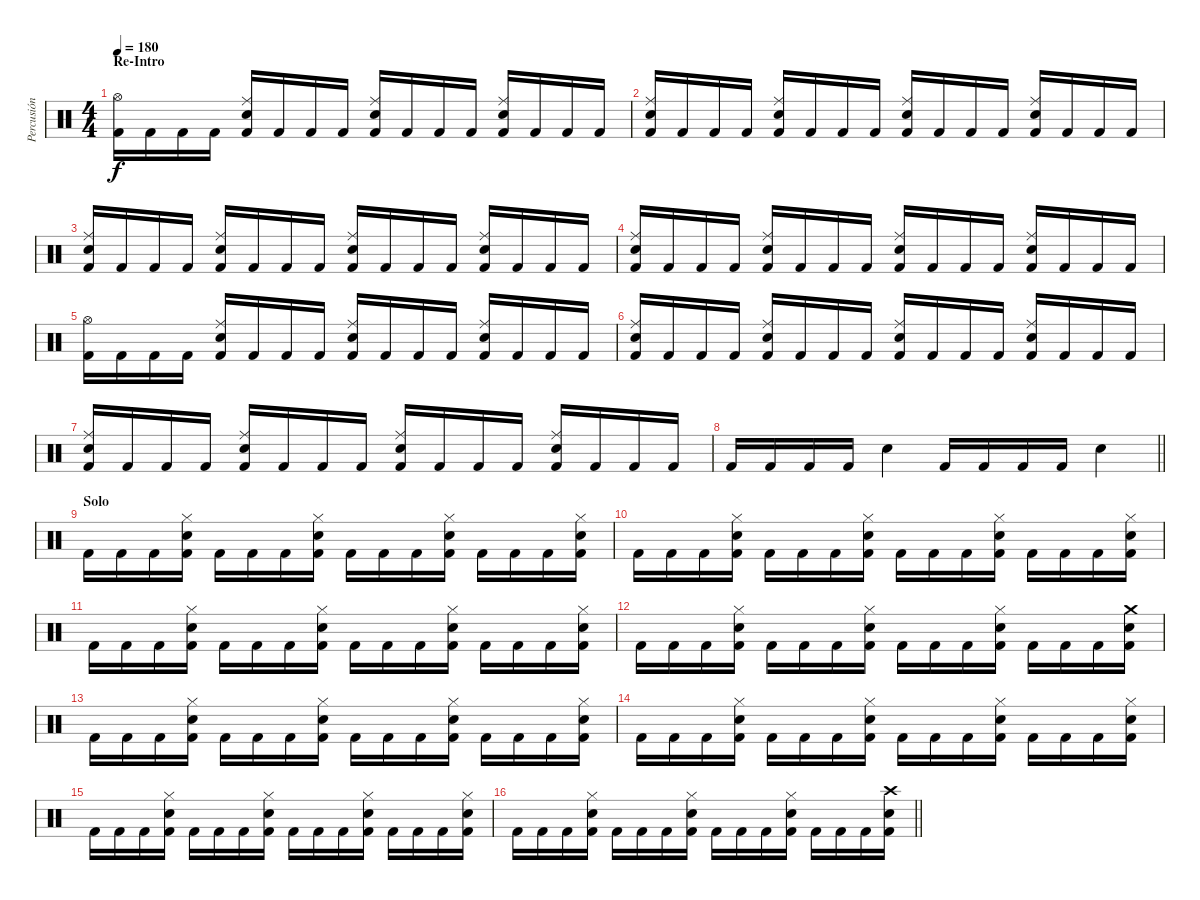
\track ("Percusión" "Percusión") {instrument percussion}
\staff {score}
\articulation defaults
\ts (4 4)
\section ("" "Re-Intro")
\tempo 180
\clef neutral
\ks c
("Hi-Hat (open)" "Kick (hit) 2").16{dy f} "Kick (hit) 2".16 "Kick (hit) 2".16 "Kick (hit) 2".16 ("Ride (middle)" "Snare (hit) 2" "Kick (hit) 2").16 "Kick (hit) 2".16 "Kick (hit) 2".16 "Kick (hit) 2".16 ("Ride (middle)" "Snare (hit) 2" "Kick (hit) 2").16 "Kick (hit) 2".16 "Kick (hit) 2".16 "Kick (hit) 2".16 ("Ride (middle)" "Snare (hit) 2" "Kick (hit) 2").16 "Kick (hit) 2".16 "Kick (hit) 2".16 "Kick (hit) 2".16 |
("Ride (middle)" "Snare (hit) 2" "Kick (hit) 2").16 "Kick (hit) 2".16 "Kick (hit) 2".16 "Kick (hit) 2".16 ("Ride (middle)" "Snare (hit) 2" "Kick (hit) 2").16 "Kick (hit) 2".16 "Kick (hit) 2".16 "Kick (hit) 2".16 ("Ride (middle)" "Snare (hit) 2" "Kick (hit) 2").16 "Kick (hit) 2".16 "Kick (hit) 2".16 "Kick (hit) 2".16 ("Ride (middle)" "Snare (hit) 2" "Kick (hit) 2").16 "Kick (hit) 2".16 "Kick (hit) 2".16 "Kick (hit) 2".16 |
("Ride (middle)" "Snare (hit) 2" "Kick (hit) 2").16 "Kick (hit) 2".16 "Kick (hit) 2".16 "Kick (hit) 2".16 ("Ride (middle)" "Snare (hit) 2" "Kick (hit) 2").16 "Kick (hit) 2".16 "Kick (hit) 2".16 "Kick (hit) 2".16 ("Ride (middle)" "Snare (hit) 2" "Kick (hit) 2").16 "Kick (hit) 2".16 "Kick (hit) 2".16 "Kick (hit) 2".16 ("Ride (middle)" "Snare (hit) 2" "Kick (hit) 2").16 "Kick (hit) 2".16 "Kick (hit) 2".16 "Kick (hit) 2".16 |
("Ride (middle)" "Snare (hit) 2" "Kick (hit) 2").16 "Kick (hit) 2".16 "Kick (hit) 2".16 "Kick (hit) 2".16 ("Ride (middle)" "Snare (hit) 2" "Kick (hit) 2").16 "Kick (hit) 2".16 "Kick (hit) 2".16 "Kick (hit) 2".16 ("Ride (middle)" "Snare (hit) 2" "Kick (hit) 2").16 "Kick (hit) 2".16 "Kick (hit) 2".16 "Kick (hit) 2".16 ("Ride (middle)" "Snare (hit) 2" "Kick (hit) 2").16 "Kick (hit) 2".16 "Kick (hit) 2".16 "Kick (hit) 2".16 |
("Hi-Hat (open)" "Kick (hit) 2").16 "Kick (hit) 2".16 "Kick (hit) 2".16 "Kick (hit) 2".16 ("Ride (middle)" "Snare (hit) 2" "Kick (hit) 2").16 "Kick (hit) 2".16 "Kick (hit) 2".16 "Kick (hit) 2".16 ("Ride (middle)" "Snare (hit) 2" "Kick (hit) 2").16 "Kick (hit) 2".16 "Kick (hit) 2".16 "Kick (hit) 2".16 ("Ride (middle)" "Snare (hit) 2" "Kick (hit) 2").16 "Kick (hit) 2".16 "Kick (hit) 2".16 "Kick (hit) 2".16 |
("Ride (middle)" "Snare (hit) 2" "Kick (hit) 2").16 "Kick (hit) 2".16 "Kick (hit) 2".16 "Kick (hit) 2".16 ("Ride (middle)" "Snare (hit) 2" "Kick (hit) 2").16 "Kick (hit) 2".16 "Kick (hit) 2".16 "Kick (hit) 2".16 ("Ride (middle)" "Snare (hit) 2" "Kick (hit) 2").16 "Kick (hit) 2".16 "Kick (hit) 2".16 "Kick (hit) 2".16 ("Ride (middle)" "Snare (hit) 2" "Kick (hit) 2").16 "Kick (hit) 2".16 "Kick (hit) 2".16 "Kick (hit) 2".16 |
("Ride (middle)" "Snare (hit) 2" "Kick (hit) 2").16 "Kick (hit) 2".16 "Kick (hit) 2".16 "Kick (hit) 2".16 ("Ride (middle)" "Snare (hit) 2" "Kick (hit) 2").16 "Kick (hit) 2".16 "Kick (hit) 2".16 "Kick (hit) 2".16 ("Ride (middle)" "Snare (hit) 2" "Kick (hit) 2").16 "Kick (hit) 2".16 "Kick (hit) 2".16 "Kick (hit) 2".16 ("Ride (middle)" "Snare (hit) 2" "Kick (hit) 2").16 "Kick (hit) 2".16 "Kick (hit) 2".16 "Kick (hit) 2".16 |
\barLineRight lightlight "Kick (hit) 2".16 "Kick (hit) 2".16 "Kick (hit) 2".16 "Kick (hit) 2".16 "Snare (hit) 2".4 "Kick (hit) 2".16 "Kick (hit) 2".16 "Kick (hit) 2".16 "Kick (hit) 2".16 "Snare (hit) 2".4
|
\section ("" "Solo")
"Kick (hit) 2".16 "Kick (hit) 2".16 "Kick (hit) 2".16 ("Hi-Hat (closed)" "Snare (hit) 2" "Kick (hit) 2").16 "Kick (hit) 2".16 "Kick (hit) 2".16 "Kick (hit) 2".16 ("Hi-Hat (closed)" "Snare (hit) 2" "Kick (hit) 2").16 "Kick (hit) 2".16 "Kick (hit) 2".16 "Kick (hit) 2".16 ("Hi-Hat (closed)" "Snare (hit) 2" "Kick (hit) 2").16 "Kick (hit) 2".16 "Kick (hit) 2".16 "Kick (hit) 2".16 ("Hi-Hat (closed)" "Snare (hit) 2" "Kick (hit) 2").16 |
"Kick (hit) 2".16 "Kick (hit) 2".16 "Kick (hit) 2".16 ("Hi-Hat (closed)" "Snare (hit) 2" "Kick (hit) 2").16 "Kick (hit) 2".16 "Kick (hit) 2".16 "Kick (hit) 2".16 ("Hi-Hat (closed)" "Snare (hit) 2" "Kick (hit) 2").16 "Kick (hit) 2".16 "Kick (hit) 2".16 "Kick (hit) 2".16 ("Hi-Hat (closed)" "Snare (hit) 2" "Kick (hit) 2").16 "Kick (hit) 2".16 "Kick (hit) 2".16 "Kick (hit) 2".16 ("Hi-Hat (closed)" "Snare (hit) 2" "Kick (hit) 2").16 |
"Kick (hit) 2".16 "Kick (hit) 2".16 "Kick (hit) 2".16 ("Hi-Hat (closed)" "Snare (hit) 2" "Kick (hit) 2").16 "Kick (hit) 2".16 "Kick (hit) 2".16 "Kick (hit) 2".16 ("Hi-Hat (closed)" "Snare (hit) 2" "Kick (hit) 2").16 "Kick (hit) 2".16 "Kick (hit) 2".16 "Kick (hit) 2".16 ("Hi-Hat (closed)" "Snare (hit) 2" "Kick (hit) 2").16 "Kick (hit) 2".16 "Kick (hit) 2".16 "Kick (hit) 2".16 ("Hi-Hat (closed)" "Snare (hit) 2" "Kick (hit) 2").16 |
"Kick (hit) 2".16 "Kick (hit) 2".16 "Kick (hit) 2".16 ("Hi-Hat (closed)" "Snare (hit) 2" "Kick (hit) 2").16 "Kick (hit) 2".16 "Kick (hit) 2".16 "Kick (hit) 2".16 ("Hi-Hat (closed)" "Snare (hit) 2" "Kick (hit) 2").16 "Kick (hit) 2".16 "Kick (hit) 2".16 "Kick (hit) 2".16 ("Hi-Hat (closed)" "Snare (hit) 2" "Kick (hit) 2").16 "Kick (hit) 2".16 "Kick (hit) 2".16 "Kick (hit) 2".16 ("Crash medium (hit)" "Snare (hit) 2" "Kick (hit) 2").16 |
"Kick (hit) 2".16 "Kick (hit) 2".16 "Kick (hit) 2".16 ("Hi-Hat (closed)" "Snare (hit) 2" "Kick (hit) 2").16 "Kick (hit) 2".16 "Kick (hit) 2".16 "Kick (hit) 2".16 ("Hi-Hat (closed)" "Snare (hit) 2" "Kick (hit) 2").16 "Kick (hit) 2".16 "Kick (hit) 2".16 "Kick (hit) 2".16 ("Hi-Hat (closed)" "Snare (hit) 2" "Kick (hit) 2").16 "Kick (hit) 2".16 "Kick (hit) 2".16 "Kick (hit) 2".16 ("Hi-Hat (closed)" "Snare (hit) 2" "Kick (hit) 2").16 |
"Kick (hit) 2".16 "Kick (hit) 2".16 "Kick (hit) 2".16 ("Hi-Hat (closed)" "Snare (hit) 2" "Kick (hit) 2").16 "Kick (hit) 2".16 "Kick (hit) 2".16 "Kick (hit) 2".16 ("Hi-Hat (closed)" "Snare (hit) 2" "Kick (hit) 2").16 "Kick (hit) 2".16 "Kick (hit) 2".16 "Kick (hit) 2".16 ("Hi-Hat (closed)" "Snare (hit) 2" "Kick (hit) 2").16 "Kick (hit) 2".16 "Kick (hit) 2".16 "Kick (hit) 2".16 ("Hi-Hat (closed)" "Snare (hit) 2" "Kick (hit) 2").16 |
"Kick (hit) 2".16 "Kick (hit) 2".16 "Kick (hit) 2".16 ("Hi-Hat (closed)" "Snare (hit) 2" "Kick (hit) 2").16 "Kick (hit) 2".16 "Kick (hit) 2".16 "Kick (hit) 2".16 ("Hi-Hat (closed)" "Snare (hit) 2" "Kick (hit) 2").16 "Kick (hit) 2".16 "Kick (hit) 2".16 "Kick (hit) 2".16 ("Hi-Hat (closed)" "Snare (hit) 2" "Kick (hit) 2").16 "Kick (hit) 2".16 "Kick (hit) 2".16 "Kick (hit) 2".16 ("Hi-Hat (closed)" "Snare (hit) 2" "Kick (hit) 2").16 |
\barLineRight lightlight "Kick (hit) 2".16 "Kick (hit) 2".16 "Kick (hit) 2".16
("Hi-Hat (closed)" "Snare (hit) 2" "Kick (hit) 2").16 "Kick (hit) 2".16 "Kick (hit) 2".16 "Kick (hit) 2".16 ("Hi-Hat (closed)" "Snare (hit) 2" "Kick (hit) 2").16 "Kick (hit) 2".16 "Kick (hit) 2".16 "Kick (hit) 2".16 ("Hi-Hat (closed)" "Snare (hit) 2" "Kick (hit) 2").16 "Kick (hit) 2".16 "Kick (hit) 2".16 "Kick (hit) 2".16 ("Crash high (hit)" "Snare (hit) 2" "Kick (hit) 2").16
